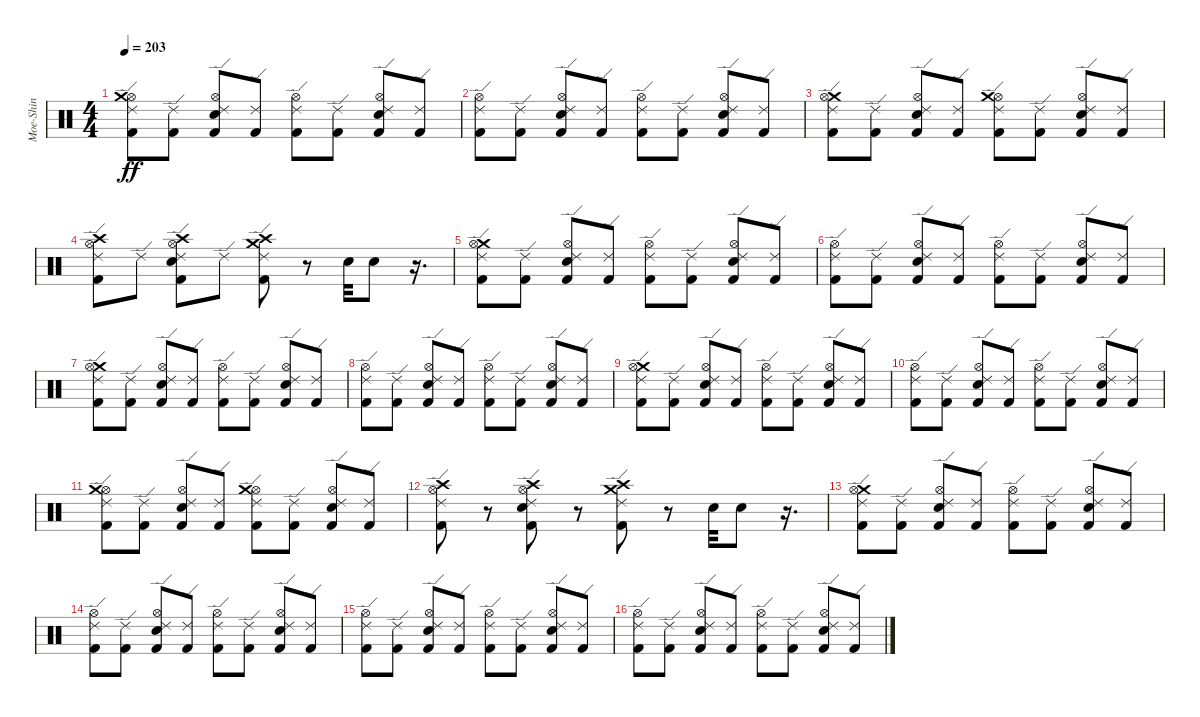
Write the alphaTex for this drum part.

\track ("Moe-Shin" "Moe-Shin") {instrument percussion}
\staff {score}
\articulation defaults
\ts (4 4)
\tempo 203
\clef neutral
\ks c
("Kick (hit) 2" "Ride (edge) 2" "Hi-Hat (open)" "Crash medium (hit)").8{dy ff} ("Kick (hit) 2" "Ride (edge) 2").8 ("Hi-Hat (open)" "Snare (hit) 2" "Ride (edge) 2" "Kick (hit) 2").8 ("Ride (edge) 2" "Kick (hit) 2").8 ("Kick (hit) 2" "Ride (edge) 2" "Hi-Hat (open)").8 ("Ride (edge) 2" "Kick (hit) 2").8 ("Hi-Hat (open)" "Kick (hit) 2" "Ride (edge) 2" "Snare (hit) 2").8 ("Kick (hit) 2" "Ride (edge) 2").8 |
("Kick (hit) 2" "Hi-Hat (open)" "Ride (edge) 2").8 ("Ride (edge) 2" "Kick (hit) 2").8 ("Ride (edge) 2" "Hi-Hat (open)" "Kick (hit) 2" "Snare (hit) 2").8 ("Kick (hit) 2" "Ride (edge) 2").8 ("Ride (edge) 2" "Kick (hit) 2" "Hi-Hat (open)").8 ("Ride (edge) 2" "Kick (hit) 2").8 ("Snare (hit) 2" "Ride (edge) 2" "Kick (hit) 2" "Hi-Hat (open)").8 ("Ride (edge) 2" "Kick (hit) 2").8 |
("Crash medium (hit)" "Ride (edge) 2" "Kick (hit) 2" "Hi-Hat (open)").8 ("Kick (hit) 2" "Ride (edge) 2").8 ("Hi-Hat (open)" "Kick (hit) 2" "Snare (hit) 2" "Ride (edge) 2").8 ("Ride (edge) 2" "Kick (hit) 2").8 ("Kick (hit) 2" "Hi-Hat (open)" "Crash medium (hit)" "Ride (edge) 2").8 ("Ride (edge) 2" "Kick (hit) 2").8 ("Snare (hit) 2" "Kick (hit) 2" "Ride (edge) 2" "Hi-Hat (open)").8 ("Kick (hit) 2" "Ride (edge) 2").8 |
("Hi-Hat (open)" "Kick (hit) 2" "Crash high (hit)" "Ride (edge) 2").8 "Ride (edge) 2".8 ("Kick (hit) 2" "Hi-Hat (open)" "Ride (edge) 2" "Snare (hit) 2" "Crash high (hit)").8 "Ride (edge) 2".8 ("Crash high (hit)" "Kick (hit) 2" "Ride (edge) 2" "Crash medium (hit)").8 r.8 "Snare (hit) 2".32 "Snare (hit) 2".8 r.16{d} |
("Ride (edge) 2" "Crash medium (hit)" "Hi-Hat (open)" "Kick (hit) 2").8 ("Kick (hit) 2" "Ride (edge) 2").8 ("Hi-Hat (open)" "Ride (edge) 2" "Kick (hit) 2" "Snare (hit) 2").8 ("Kick (hit) 2" "Ride (edge) 2").8 ("Kick (hit) 2" "Hi-Hat (open)" "Ride (edge) 2").8 ("Kick (hit) 2" "Ride (edge) 2").8 ("Kick (hit) 2" "Hi-Hat (open)" "Ride (edge) 2" "Snare (hit) 2").8 ("Ride (edge) 2" "Kick (hit) 2").8 |
("Hi-Hat (open)" "Kick (hit) 2" "Ride (edge) 2").8 ("Ride (edge) 2" "Kick (hit) 2").8 ("Snare (hit) 2" "Kick (hit) 2" "Ride (edge) 2" "Hi-Hat (open)").8 ("Kick (hit) 2" "Ride (edge) 2").8 ("Ride (edge) 2" "Hi-Hat (open)" "Kick (hit) 2").8 ("Ride (edge) 2" "Kick (hit) 2").8 ("Hi-Hat (open)" "Kick (hit) 2" "Ride (edge) 2" "Snare (hit) 2").8 ("Ride (edge) 2" "Kick (hit) 2").8 |
("Crash medium (hit)" "Ride (edge) 2" "Hi-Hat (open)" "Kick (hit) 2").8 ("Kick (hit) 2" "Ride (edge) 2").8 ("Hi-Hat (open)" "Snare (hit) 2" "Kick (hit) 2" "Ride (edge) 2").8 ("Ride (edge) 2" "Kick (hit) 2").8 ("Hi-Hat (open)" "Ride (edge) 2" "Kick (hit) 2").8 ("Kick (hit) 2" "Ride (edge) 2").8 ("Ride (edge) 2" "Hi-Hat (open)" "Kick (hit) 2" "Snare (hit) 2").8 ("Kick (hit) 2" "Ride (edge) 2").8 |
("Kick (hit) 2" "Hi-Hat (open)" "Ride (edge) 2").8 ("Ride (edge) 2" "Kick (hit) 2").8 ("Hi-Hat (open)" "Snare (hit) 2" "Kick (hit) 2" "Ride (edge) 2").8 ("Kick (hit) 2" "Ride (edge) 2").8 ("Hi-Hat (open)" "Ride (edge) 2" "Kick (hit) 2").8 ("Kick (hit) 2" "Ride (edge) 2").8 ("Hi-Hat (open)" "Kick (hit) 2" "Ride (edge) 2" "Snare (hit) 2").8 ("Ride (edge) 2" "Kick (hit) 2").8 |
("Ride (edge) 2" "Kick (hit) 2" "Crash medium (hit)" "Hi-Hat (open)").8 ("Ride (edge) 2" "Kick (hit) 2").8 ("Kick (hit) 2" "Hi-Hat (open)" "Snare (hit) 2" "Ride (edge) 2").8 ("Kick (hit) 2" "Ride (edge) 2").8 ("Hi-Hat (open)" "Ride (edge) 2" "Kick (hit) 2").8 ("Ride (edge) 2" "Kick (hit) 2").8 ("Kick (hit) 2" "Hi-Hat (open)" "Ride (edge) 2" "Snare (hit) 2").8 ("Ride (edge) 2" "Kick (hit) 2").8 |
("Kick (hit) 2" "Ride (edge) 2" "Hi-Hat (open)").8 ("Kick (hit) 2" "Ride (edge) 2").8 ("Snare (hit) 2" "Hi-Hat (open)" "Ride (edge) 2" "Kick (hit) 2").8 ("Ride (edge) 2" "Kick (hit) 2").8 ("Kick (hit) 2" "Hi-Hat (open)" "Ride (edge) 2").8 ("Kick (hit) 2" "Ride (edge) 2").8 ("Hi-Hat (open)" "Kick (hit) 2" "Snare (hit) 2" "Ride (edge) 2").8 ("Kick (hit) 2" "Ride (edge) 2").8 |
("Hi-Hat (open)" "Crash medium (hit)" "Kick (hit) 2" "Ride (edge) 2").8 ("Ride (edge) 2" "Kick (hit) 2").8 ("Ride (edge) 2" "Snare (hit) 2" "Hi-Hat (open)" "Kick (hit) 2").8 ("Ride (edge) 2" "Kick (hit) 2").8 ("Kick (hit) 2" "Hi-Hat (open)" "Crash medium (hit)" "Ride (edge) 2").8 ("Ride (edge) 2" "Kick (hit) 2").8 ("Ride (edge) 2" "Snare (hit) 2" "Kick (hit) 2" "Hi-Hat (open)").8 ("Kick (hit) 2" "Ride (edge) 2").8 |
("Ride (edge) 2" "Hi-Hat (open)" "Kick (hit) 2" "Crash high (hit)").8 r.8 ("Snare (hit) 2" "Crash high (hit)" "Ride (edge) 2" "Hi-Hat (open)" "Kick (hit) 2").8 r.8 ("Ride (edge) 2" "Crash high (hit)" "Kick (hit) 2" "Crash medium (hit)").8 r.8 "Snare (hit) 2".32 "Snare (hit) 2".8 r.16{d} |
("Crash medium (hit)" "Kick (hit) 2" "Hi-Hat (open)" "Ride (edge) 2").8 ("Ride (edge) 2" "Kick (hit) 2").8 ("Hi-Hat (open)" "Ride (edge) 2" "Snare (hit) 2" "Kick (hit) 2").8 ("Kick (hit) 2" "Ride (edge) 2").8 ("Kick (hit) 2" "Ride (edge) 2" "Hi-Hat (open)").8 ("Kick (hit) 2" "Ride (edge) 2").8 ("Kick (hit) 2" "Ride (edge) 2" "Hi-Hat (open)" "Snare (hit) 2").8 ("Ride (edge) 2" "Kick (hit) 2").8 |
("Ride (edge) 2" "Kick (hit) 2" "Hi-Hat (open)").8 ("Ride (edge) 2" "Kick (hit) 2").8 ("Ride (edge) 2" "Hi-Hat (open)" "Snare (hit) 2" "Kick (hit) 2").8 ("Ride (edge) 2" "Kick (hit) 2").8 ("Hi-Hat (open)" "Ride (edge) 2" "Kick (hit) 2").8 ("Ride (edge) 2" "Kick (hit) 2").8 ("Snare (hit) 2" "Kick (hit) 2" "Hi-Hat (open)" "Ride (edge) 2").8 ("Ride (edge) 2" "Kick (hit) 2").8 |
("Ride (edge) 2" "Hi-Hat (open)" "Kick (hit) 2").8 ("Kick (hit) 2" "Ride (edge) 2").8 ("Hi-Hat (open)" "Snare (hit) 2" "Kick (hit) 2" "Ride (edge) 2").8 ("Ride (edge) 2" "Kick (hit) 2").8 ("Kick (hit) 2" "Hi-Hat (open)" "Ride (edge) 2").8 ("Ride (edge) 2" "Kick (hit) 2").8 ("Snare (hit) 2" "Kick (hit) 2" "Ride (edge) 2" "Hi-Hat (open)").8 ("Kick (hit) 2" "Ride (edge) 2").8 |
("Kick (hit) 2" "Ride (edge) 2" "Hi-Hat (open)").8 ("Ride (edge) 2" "Kick (hit) 2").8 ("Kick (hit) 2" "Hi-Hat (open)" "Ride (edge) 2" "Snare (hit) 2").8 ("Kick (hit) 2" "Ride (edge) 2").8 ("Ride (edge) 2" "Hi-Hat (open)" "Kick (hit) 2").8 ("Kick (hit) 2" "Ride (edge) 2").8 ("Ride (edge) 2" "Hi-Hat (open)" "Snare (hit) 2" "Kick (hit) 2").8 ("Ride (edge) 2" "Kick (hit) 2").8
